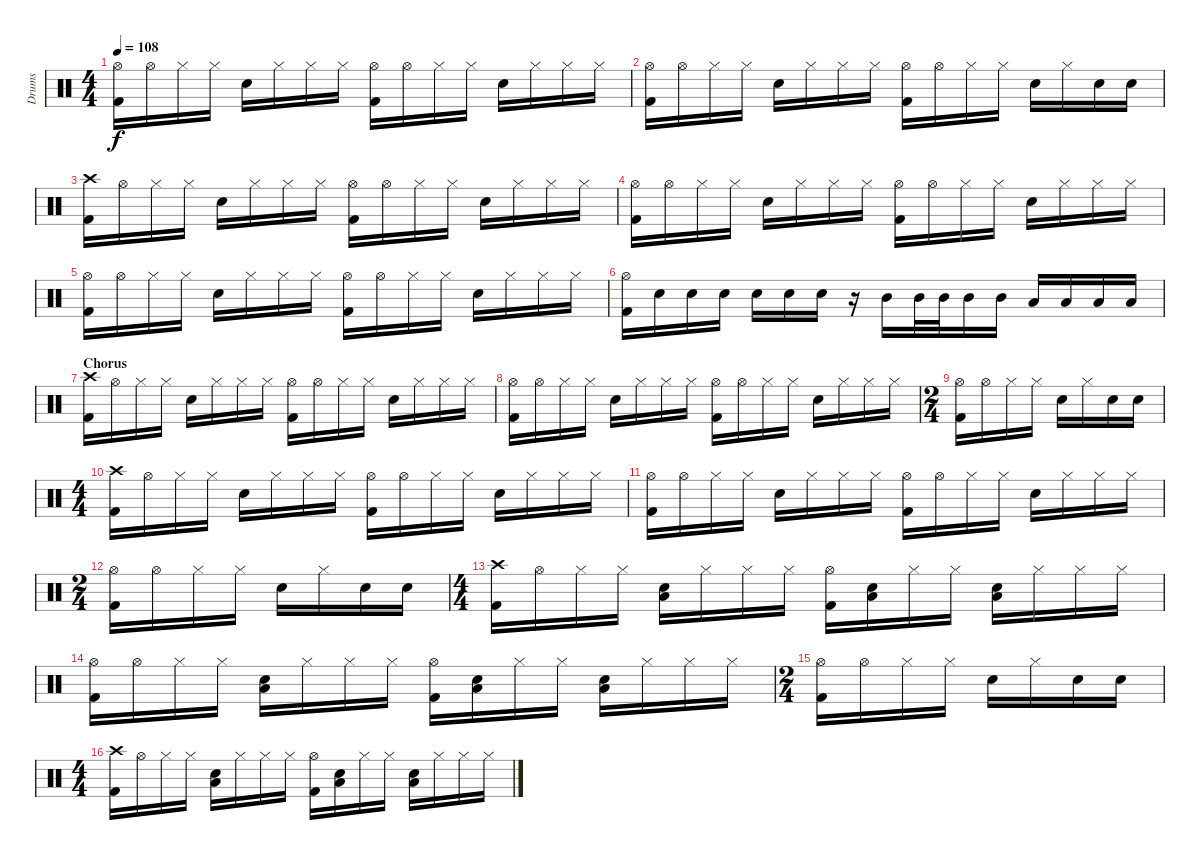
\track ("Drums" "Drums") {instrument percussion}
\staff {score}
\articulation defaults
\ts (4 4)
\tempo 108
\clef neutral
\ks c
("Hi-Hat (open)" "Kick (hit) 2").16{dy f} "Hi-Hat (open)".16 "Hi-Hat (closed)".16 "Hi-Hat (closed)".16 "Electric Snare (hit)".16 "Hi-Hat (closed)".16 "Hi-Hat (closed)".16 "Hi-Hat (closed)".16 ("Hi-Hat (open)" "Kick (hit) 2").16 "Hi-Hat (open)".16 "Hi-Hat (closed)".16 "Hi-Hat (closed)".16 "Electric Snare (hit)".16 "Hi-Hat (closed)".16 "Hi-Hat (closed)".16 "Hi-Hat (closed)".16 |
("Hi-Hat (open)" "Kick (hit) 2").16 "Hi-Hat (open)".16 "Hi-Hat (closed)".16 "Hi-Hat (closed)".16 "Electric Snare (hit)".16 "Hi-Hat (closed)".16 "Hi-Hat (closed)".16 "Hi-Hat (closed)".16 ("Hi-Hat (open)" "Kick (hit) 2").16 "Hi-Hat (open)".16 "Hi-Hat (closed)".16 "Hi-Hat (closed)".16 "Electric Snare (hit)".16 "Hi-Hat (closed)".16 "Electric Snare (hit)".16 "Electric Snare (hit)".16 |
("Crash high (hit)" "Kick (hit) 2").16 "Hi-Hat (open)".16 "Hi-Hat (closed)".16 "Hi-Hat (closed)".16 "Electric Snare (hit)".16 "Hi-Hat (closed)".16 "Hi-Hat (closed)".16 "Hi-Hat (closed)".16 ("Hi-Hat (open)" "Kick (hit) 2").16 "Hi-Hat (open)".16 "Hi-Hat (closed)".16 "Hi-Hat (closed)".16 "Electric Snare (hit)".16 "Hi-Hat (closed)".16 "Hi-Hat (closed)".16 "Hi-Hat (closed)".16 |
("Hi-Hat (open)" "Kick (hit) 2").16 "Hi-Hat (open)".16 "Hi-Hat (closed)".16 "Hi-Hat (closed)".16 "Electric Snare (hit)".16 "Hi-Hat (closed)".16 "Hi-Hat (closed)".16 "Hi-Hat (closed)".16 ("Hi-Hat (open)" "Kick (hit) 2").16 "Hi-Hat (open)".16 "Hi-Hat (closed)".16 "Hi-Hat (closed)".16 "Electric Snare (hit)".16 "Hi-Hat (closed)".16 "Hi-Hat (closed)".16 "Hi-Hat (closed)".16 |
("Hi-Hat (open)" "Kick (hit) 2").16 "Hi-Hat (open)".16 "Hi-Hat (closed)".16 "Hi-Hat (closed)".16 "Electric Snare (hit)".16 "Hi-Hat (closed)".16 "Hi-Hat (closed)".16 "Hi-Hat (closed)".16 ("Hi-Hat (open)" "Kick (hit) 2").16 "Hi-Hat (open)".16 "Hi-Hat (closed)".16 "Hi-Hat (closed)".16 "Electric Snare (hit)".16 "Hi-Hat (closed)".16 "Hi-Hat (closed)".16 "Hi-Hat (closed)".16 |
("Hi-Hat (open)" "Kick (hit) 2").16 "Electric Snare (hit)".16 "Electric Snare (hit)".16 "Electric Snare (hit)".16 "Electric Snare (hit)".16 "Electric Snare (hit)".16 "Electric Snare (hit)".16 r.16 "Mid Tom (hit)".16 "Mid Tom (hit)".32 "Mid Tom (hit)".32 "Mid Tom (hit)".16 "Mid Tom (hit)".16 "Low Tom (hit)".16 "Low Tom (hit)".16 "Low Floor Tom (hit)".16 "Low Floor Tom (hit)".16 |
\section ("" "Chorus")
("Crash high (hit)" "Kick (hit) 2").16 "Hi-Hat (open)".16 "Hi-Hat (closed)".16 "Hi-Hat (closed)".16 "Electric Snare (hit)".16 "Hi-Hat (closed)".16 "Hi-Hat (closed)".16 "Hi-Hat (closed)".16 ("Hi-Hat (open)" "Kick (hit) 2").16 "Hi-Hat (open)".16 "Hi-Hat (closed)".16 "Hi-Hat (closed)".16 "Electric Snare (hit)".16 "Hi-Hat (closed)".16 "Hi-Hat (closed)".16 "Hi-Hat (closed)".16 |
("Hi-Hat (open)" "Kick (hit) 2").16 "Hi-Hat (open)".16 "Hi-Hat (closed)".16 "Hi-Hat (closed)".16 "Electric Snare (hit)".16 "Hi-Hat (closed)".16 "Hi-Hat (closed)".16 "Hi-Hat (closed)".16 ("Hi-Hat (open)" "Kick (hit) 2").16 "Hi-Hat (open)".16 "Hi-Hat (closed)".16 "Hi-Hat (closed)".16 "Electric Snare (hit)".16 "Hi-Hat (closed)".16 "Hi-Hat (closed)".16 "Hi-Hat (closed)".16 |
\ts (2 4)
("Hi-Hat (open)" "Kick (hit) 2").16 "Hi-Hat (open)".16 "Hi-Hat (closed)".16 "Hi-Hat (closed)".16 "Electric Snare (hit)".16 "Hi-Hat (closed)".16 "Electric Snare (hit)".16 "Electric Snare (hit)".16 |
\ts (4 4)
("Crash high (hit)" "Kick (hit) 2").16 "Hi-Hat (open)".16 "Hi-Hat (closed)".16 "Hi-Hat (closed)".16 "Electric Snare (hit)".16 "Hi-Hat (closed)".16 "Hi-Hat (closed)".16 "Hi-Hat (closed)".16 ("Hi-Hat (open)" "Kick (hit) 2").16 "Hi-Hat (open)".16 "Hi-Hat (closed)".16 "Hi-Hat (closed)".16 "Electric Snare (hit)".16 "Hi-Hat (closed)".16 "Hi-Hat (closed)".16 "Hi-Hat (closed)".16 |
("Hi-Hat (open)" "Kick (hit) 2").16 "Hi-Hat (open)".16 "Hi-Hat (closed)".16 "Hi-Hat (closed)".16 "Electric Snare (hit)".16 "Hi-Hat (closed)".16 "Hi-Hat (closed)".16 "Hi-Hat (closed)".16 ("Hi-Hat (open)" "Kick (hit) 2").16 "Hi-Hat (open)".16 "Hi-Hat (closed)".16 "Hi-Hat (closed)".16 "Electric Snare (hit)".16 "Hi-Hat (closed)".16 "Hi-Hat (closed)".16 "Hi-Hat (closed)".16 |
\ts (2 4)
("Hi-Hat (open)" "Kick (hit) 2").16 "Hi-Hat (open)".16 "Hi-Hat (closed)".16 "Hi-Hat (closed)".16 "Electric Snare (hit)".16 "Hi-Hat (closed)".16 "Electric Snare (hit)".16 "Electric Snare (hit)".16 |
\ts (4 4)
("Crash high (hit)" "Kick (hit) 2").16 "Hi-Hat (open)".16 "Hi-Hat (closed)".16 "Hi-Hat (closed)".16 ("Low Floor Tom (hit)" "Electric Snare (hit)").16 "Hi-Hat (closed)".16 "Hi-Hat (closed)".16 "Hi-Hat (closed)".16 ("Hi-Hat (open)" "Kick (hit) 2").16 ("Low Floor Tom (hit)" "Electric Snare (hit)").16 "Hi-Hat (closed)".16 "Hi-Hat (closed)".16 ("Low Floor Tom (hit)" "Electric Snare (hit)").16 "Hi-Hat (closed)".16 "Hi-Hat (closed)".16 "Hi-Hat (closed)".16 |
("Hi-Hat (open)" "Kick (hit) 2").16 "Hi-Hat (open)".16 "Hi-Hat (closed)".16 "Hi-Hat (closed)".16 ("Low Floor Tom (hit)" "Electric Snare (hit)").16 "Hi-Hat (closed)".16 "Hi-Hat (closed)".16 "Hi-Hat (closed)".16 ("Hi-Hat (open)" "Kick (hit) 2").16 ("Low Floor Tom (hit)" "Electric Snare (hit)").16 "Hi-Hat (closed)".16 "Hi-Hat (closed)".16 ("Low Floor Tom (hit)" "Electric Snare (hit)").16 "Hi-Hat (closed)".16 "Hi-Hat (closed)".16 "Hi-Hat (closed)".16 |
\ts (2 4)
("Hi-Hat (open)" "Kick (hit) 2").16 "Hi-Hat (open)".16 "Hi-Hat (closed)".16 "Hi-Hat (closed)".16 "Electric Snare (hit)".16 "Hi-Hat (closed)".16 "Electric Snare (hit)".16 "Electric Snare (hit)".16 |
\ts (4 4)
("Crash high (hit)" "Kick (hit) 2").16 "Hi-Hat (open)".16 "Hi-Hat (closed)".16 "Hi-Hat (closed)".16 ("Low Floor Tom (hit)" "Electric Snare (hit)").16 "Hi-Hat (closed)".16 "Hi-Hat (closed)".16 "Hi-Hat (closed)".16 ("Hi-Hat (open)" "Kick (hit) 2").16 ("Low Floor Tom (hit)" "Electric Snare (hit)").16 "Hi-Hat (closed)".16 "Hi-Hat (closed)".16 ("Low Floor Tom (hit)" "Electric Snare (hit)").16 "Hi-Hat (closed)".16 "Hi-Hat (closed)".16 "Hi-Hat (closed)".16
